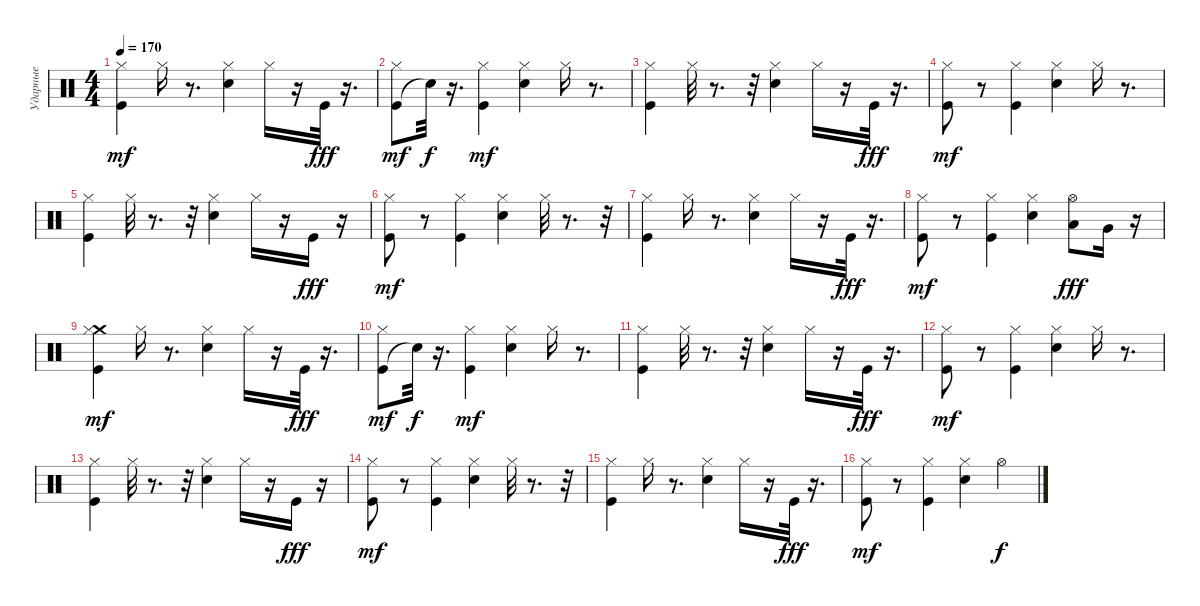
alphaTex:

\track ("Ударные" "Ударные") {instrument percussion}
\staff {score}
\articulation defaults
\ts (4 4)
\tempo 170
\clef neutral
\ks c
("Kick (hit)" "Hi-Hat (closed)").4{dy mf} "Hi-Hat (closed)".16 r.8{d} ("Snare (hit) 2" "Hi-Hat (closed)").4 "Hi-Hat (closed)".16 r.16 "Kick (hit)".32{dy fff} r.16{d} |
("Kick (hit)" "Hi-Hat (closed)").8{dy mf} "Snare (hit)"{t}.32{dy f} r.16{d} ("Kick (hit)" "Hi-Hat (closed)").4{dy mf} ("Snare (hit) 2" "Hi-Hat (closed)").4 "Hi-Hat (closed)".16 r.8{d} |
("Kick (hit)" "Hi-Hat (closed)").4 "Hi-Hat (closed)".32 r.8{d} r.32 ("Snare (hit) 2" "Hi-Hat (closed)").4 "Hi-Hat (closed)".16 r.16 "Kick (hit)".32{dy fff} r.16{d} |
("Kick (hit)" "Hi-Hat (closed)").8{dy mf} r.8 ("Kick (hit)" "Hi-Hat (closed)").4 ("Snare (hit) 2" "Hi-Hat (closed)").4 "Hi-Hat (closed)".16 r.8{d} |
("Kick (hit)" "Hi-Hat (closed)").4 "Hi-Hat (closed)".32 r.8{d} r.32 ("Snare (hit) 2" "Hi-Hat (closed)").4 "Hi-Hat (closed)".16 r.16 "Kick (hit)".16{dy fff} r.16 |
("Kick (hit)" "Hi-Hat (closed)").8{dy mf} r.8 ("Kick (hit)" "Hi-Hat (closed)").4 ("Snare (hit) 2" "Hi-Hat (closed)").4 "Hi-Hat (closed)".32 r.8{d} r.32 |
("Kick (hit)" "Hi-Hat (closed)").4 "Hi-Hat (closed)".16 r.8{d} ("Snare (hit) 2" "Hi-Hat (closed)").4 "Hi-Hat (closed)".16 r.16 "Kick (hit)".32{dy fff} r.16{d} |
("Kick (hit)" "Hi-Hat (closed)").8{dy mf} r.8 ("Kick (hit)" "Hi-Hat (closed)").4 ("Snare (hit) 2" "Hi-Hat (closed)").4 ("Low Tom (hit)" "Hi-Hat (open)").8{dy fff} "Very Low Tom (hit)".16 r.16 |
("Kick (hit)" "Crash medium (hit)" "Hi-Hat (closed)").4{dy mf} "Hi-Hat (closed)".16 r.8{d} ("Snare (hit) 2" "Hi-Hat (closed)").4 "Hi-Hat (closed)".16 r.16 "Kick (hit)".32{dy fff} r.16{d} |
("Kick (hit)" "Hi-Hat (closed)").8{dy mf} "Snare (hit)"{t}.32{dy f} r.16{d} ("Kick (hit)" "Hi-Hat (closed)").4{dy mf} ("Snare (hit) 2" "Hi-Hat (closed)").4 "Hi-Hat (closed)".16 r.8{d} |
("Kick (hit)" "Hi-Hat (closed)").4 "Hi-Hat (closed)".32 r.8{d} r.32 ("Snare (hit) 2" "Hi-Hat (closed)").4 "Hi-Hat (closed)".16 r.16 "Kick (hit)".32{dy fff} r.16{d} |
("Kick (hit)" "Hi-Hat (closed)").8{dy mf} r.8 ("Kick (hit)" "Hi-Hat (closed)").4 ("Snare (hit) 2" "Hi-Hat (closed)").4 "Hi-Hat (closed)".16 r.8{d} |
("Kick (hit)" "Hi-Hat (closed)").4 "Hi-Hat (closed)".32 r.8{d} r.32 ("Snare (hit) 2" "Hi-Hat (closed)").4 "Hi-Hat (closed)".16 r.16 "Kick (hit)".16{dy fff} r.16 |
("Kick (hit)" "Hi-Hat (closed)").8{dy mf} r.8 ("Kick (hit)" "Hi-Hat (closed)").4 ("Snare (hit) 2" "Hi-Hat (closed)").4 "Hi-Hat (closed)".32 r.8{d} r.32 |
("Kick (hit)" "Hi-Hat (closed)").4 "Hi-Hat (closed)".16 r.8{d} ("Snare (hit) 2" "Hi-Hat (closed)").4 "Hi-Hat (closed)".16 r.16 "Kick (hit)".32{dy fff} r.16{d} |
("Kick (hit)" "Hi-Hat (closed)").8{dy mf} r.8 ("Kick (hit)" "Hi-Hat (closed)").4 ("Snare (hit) 2" "Hi-Hat (closed)").4 "Hi-Hat (open)".4{dy f}
